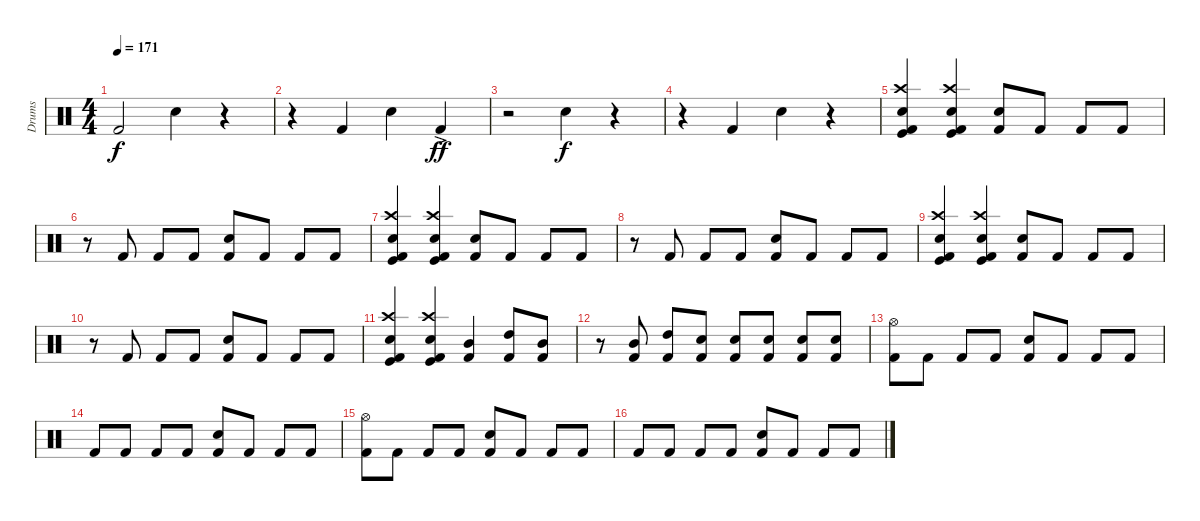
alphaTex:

\track ("Drums" "Drums") {instrument percussion}
\staff {score}
\articulation defaults
\ts (4 4)
\tempo 171
\clef neutral
\ks c "Kick (hit) 2".2{dy f} "Snare (hit) 2".4
r.4 |
r.4 "Kick (hit) 2".4 "Snare (hit) 2".4 "Kick (hit) 2"{ac}.4{dy ff} |
r.2 "Snare (hit) 2".4{dy f} r.4 |
r.4 "Kick (hit) 2".4 "Snare (hit) 2".4 r.4 |
("Crash high (hit)" "Kick (hit) 2" "Snare (hit) 2" "Kick (hit)").4 ("Crash high (hit)" "Kick (hit) 2" "Snare (hit) 2" "Kick (hit)").4 ("Snare (hit) 2" "Kick (hit) 2").8 "Kick (hit) 2".8 "Kick (hit) 2".8 "Kick (hit) 2".8 |
r.8 "Kick (hit) 2".8 "Kick (hit) 2".8 "Kick (hit) 2".8 ("Snare (hit) 2" "Kick (hit) 2").8 "Kick (hit) 2".8 "Kick (hit) 2".8 "Kick (hit) 2".8 |
("Crash high (hit)" "Kick (hit) 2" "Snare (hit) 2" "Kick (hit)").4 ("Crash high (hit)" "Kick (hit) 2" "Snare (hit) 2" "Kick (hit)").4 ("Snare (hit) 2" "Kick (hit) 2").8 "Kick (hit) 2".8 "Kick (hit) 2".8 "Kick (hit) 2".8 |
r.8 "Kick (hit) 2".8 "Kick (hit) 2".8 "Kick (hit) 2".8 ("Snare (hit) 2" "Kick (hit) 2").8 "Kick (hit) 2".8 "Kick (hit) 2".8 "Kick (hit) 2".8 |
("Crash high (hit)" "Kick (hit) 2" "Snare (hit) 2" "Kick (hit)").4 ("Crash high (hit)" "Kick (hit) 2" "Snare (hit) 2" "Kick (hit)").4 ("Snare (hit) 2" "Kick (hit) 2").8 "Kick (hit) 2".8 "Kick (hit) 2".8 "Kick (hit) 2".8 |
r.8 "Kick (hit) 2".8 "Kick (hit) 2".8 "Kick (hit) 2".8 ("Snare (hit) 2" "Kick (hit) 2").8 "Kick (hit) 2".8 "Kick (hit) 2".8 "Kick (hit) 2".8 |
("Crash high (hit)" "Kick (hit) 2" "Snare (hit) 2" "Kick (hit)").4 ("Crash high (hit)" "Kick (hit) 2" "Snare (hit) 2" "Kick (hit)").4 ("Mid Tom (hit)" "Kick (hit) 2").4 ("High Tom (hit)" "Kick (hit) 2").8 ("Mid Tom (hit)" "Kick (hit) 2").8 |
r.8 ("Mid Tom (hit)" "Kick (hit) 2").8 ("High Tom (hit)" "Kick (hit) 2").8 ("Snare (hit) 2" "Kick (hit) 2").8 ("Snare (hit) 2" "Kick (hit) 2").8 ("Snare (hit) 2" "Kick (hit) 2").8 ("Snare (hit) 2" "Kick (hit) 2").8 ("Snare (hit) 2" "Kick (hit) 2").8 |
("Hi-Hat (open)" "Kick (hit) 2").8 "Kick (hit) 2".8 "Kick (hit) 2".8 "Kick (hit) 2".8 ("Snare (hit) 2" "Kick (hit) 2").8 "Kick (hit) 2".8 "Kick (hit) 2".8 "Kick (hit) 2".8 |
"Kick (hit) 2".8 "Kick (hit) 2".8 "Kick (hit) 2".8 "Kick (hit) 2".8 ("Snare (hit) 2" "Kick (hit) 2").8 "Kick (hit) 2".8 "Kick (hit) 2".8 "Kick (hit) 2".8 |
("Hi-Hat (open)" "Kick (hit) 2").8 "Kick (hit) 2".8 "Kick (hit) 2".8 "Kick (hit) 2".8 ("Snare (hit) 2" "Kick (hit) 2").8 "Kick (hit) 2".8 "Kick (hit) 2".8 "Kick (hit) 2".8 |
"Kick (hit) 2".8 "Kick (hit) 2".8 "Kick (hit) 2".8 "Kick (hit) 2".8 ("Snare (hit) 2" "Kick (hit) 2").8 "Kick (hit) 2".8 "Kick (hit) 2".8 "Kick (hit) 2".8
